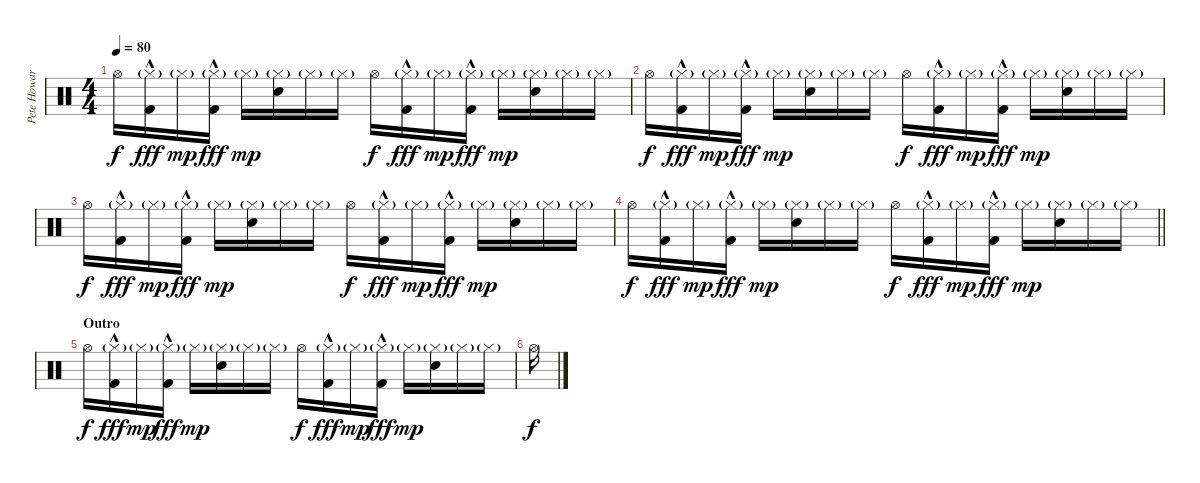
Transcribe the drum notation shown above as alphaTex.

\track ("Pete Howard - Drums" "Pete Howar") {instrument percussion}
\staff {score}
\articulation defaults
\ts (4 4)
\tempo 80
\clef neutral
\ks c "Hi-Hat (open)".16{dy f}
("Hi-Hat (closed)"{g} "Kick (hit) 2"{hac}).16{dy fff} "Hi-Hat (closed)"{g}.16{dy mp} ("Hi-Hat (closed)"{g} "Kick (hit) 2"{hac}).16{dy fff} "Hi-Hat (closed)"{g}.16{dy mp} ("Hi-Hat (closed)"{g} "Electric Snare (hit)").16 "Hi-Hat (closed)"{g}.16 "Hi-Hat (closed)"{g}.16 "Hi-Hat (open)".16{dy f} ("Hi-Hat (closed)"{g} "Kick (hit) 2"{hac}).16{dy fff} "Hi-Hat (closed)"{g}.16{dy mp} ("Hi-Hat (closed)"{g} "Kick (hit) 2"{hac}).16{dy fff} "Hi-Hat (closed)"{g}.16{dy mp} ("Hi-Hat (closed)"{g} "Electric Snare (hit)").16 "Hi-Hat (closed)"{g}.16 "Hi-Hat (closed)"{g}.16 |
"Hi-Hat (open)".16{dy f} ("Hi-Hat (closed)"{g} "Kick (hit) 2"{hac}).16{dy fff} "Hi-Hat (closed)"{g}.16{dy mp} ("Hi-Hat (closed)"{g} "Kick (hit) 2"{hac}).16{dy fff} "Hi-Hat (closed)"{g}.16{dy mp} ("Hi-Hat (closed)"{g} "Electric Snare (hit)").16 "Hi-Hat (closed)"{g}.16 "Hi-Hat (closed)"{g}.16 "Hi-Hat (open)".16{dy f} ("Hi-Hat (closed)"{g} "Kick (hit) 2"{hac}).16{dy fff} "Hi-Hat (closed)"{g}.16{dy mp} ("Hi-Hat (closed)"{g} "Kick (hit) 2"{hac}).16{dy fff} "Hi-Hat (closed)"{g}.16{dy mp} ("Hi-Hat (closed)"{g} "Electric Snare (hit)").16 "Hi-Hat (closed)"{g}.16 "Hi-Hat (closed)"{g}.16 |
"Hi-Hat (open)".16{dy f} ("Hi-Hat (closed)"{g} "Kick (hit) 2"{hac}).16{dy fff} "Hi-Hat (closed)"{g}.16{dy mp} ("Hi-Hat (closed)"{g} "Kick (hit) 2"{hac}).16{dy fff} "Hi-Hat (closed)"{g}.16{dy mp} ("Hi-Hat (closed)"{g} "Electric Snare (hit)").16 "Hi-Hat (closed)"{g}.16 "Hi-Hat (closed)"{g}.16 "Hi-Hat (open)".16{dy f} ("Hi-Hat (closed)"{g} "Kick (hit) 2"{hac}).16{dy fff} "Hi-Hat (closed)"{g}.16{dy mp} ("Hi-Hat (closed)"{g} "Kick (hit) 2"{hac}).16{dy fff} "Hi-Hat (closed)"{g}.16{dy mp} ("Hi-Hat (closed)"{g} "Electric Snare (hit)").16 "Hi-Hat (closed)"{g}.16 "Hi-Hat (closed)"{g}.16 |
\barLineRight lightlight "Hi-Hat (open)".16{dy f}
("Hi-Hat (closed)"{g} "Kick (hit) 2"{hac}).16{dy fff} "Hi-Hat (closed)"{g}.16{dy mp} ("Hi-Hat (closed)"{g} "Kick (hit) 2"{hac}).16{dy fff} "Hi-Hat (closed)"{g}.16{dy mp} ("Hi-Hat (closed)"{g} "Electric Snare (hit)").16 "Hi-Hat (closed)"{g}.16 "Hi-Hat (closed)"{g}.16 "Hi-Hat (open)".16{dy f} ("Hi-Hat (closed)"{g} "Kick (hit) 2"{hac}).16{dy fff} "Hi-Hat (closed)"{g}.16{dy mp} ("Hi-Hat (closed)"{g} "Kick (hit) 2"{hac}).16{dy fff} "Hi-Hat (closed)"{g}.16{dy mp} ("Hi-Hat (closed)"{g} "Electric Snare (hit)").16 "Hi-Hat (closed)"{g}.16 "Hi-Hat (closed)"{g}.16 |
\section ("" "Outro")
"Hi-Hat (open)".16{dy f} ("Hi-Hat (closed)"{g} "Kick (hit) 2"{hac}).16{dy fff} "Hi-Hat (closed)"{g}.16{dy mp} ("Hi-Hat (closed)"{g} "Kick (hit) 2"{hac}).16{dy fff} "Hi-Hat (closed)"{g}.16{dy mp} ("Hi-Hat (closed)"{g} "Electric Snare (hit)").16 "Hi-Hat (closed)"{g}.16 "Hi-Hat (closed)"{g}.16 "Hi-Hat (open)".16{dy f} ("Hi-Hat (closed)"{g} "Kick (hit) 2"{hac}).16{dy fff} "Hi-Hat (closed)"{g}.16{dy mp} ("Hi-Hat (closed)"{g} "Kick (hit) 2"{hac}).16{dy fff} "Hi-Hat (closed)"{g}.16{dy mp} ("Hi-Hat (closed)"{g} "Electric Snare (hit)").16 "Hi-Hat (closed)"{g}.16 "Hi-Hat (closed)"{g}.16 |
"Hi-Hat (open)".16{dy f}
